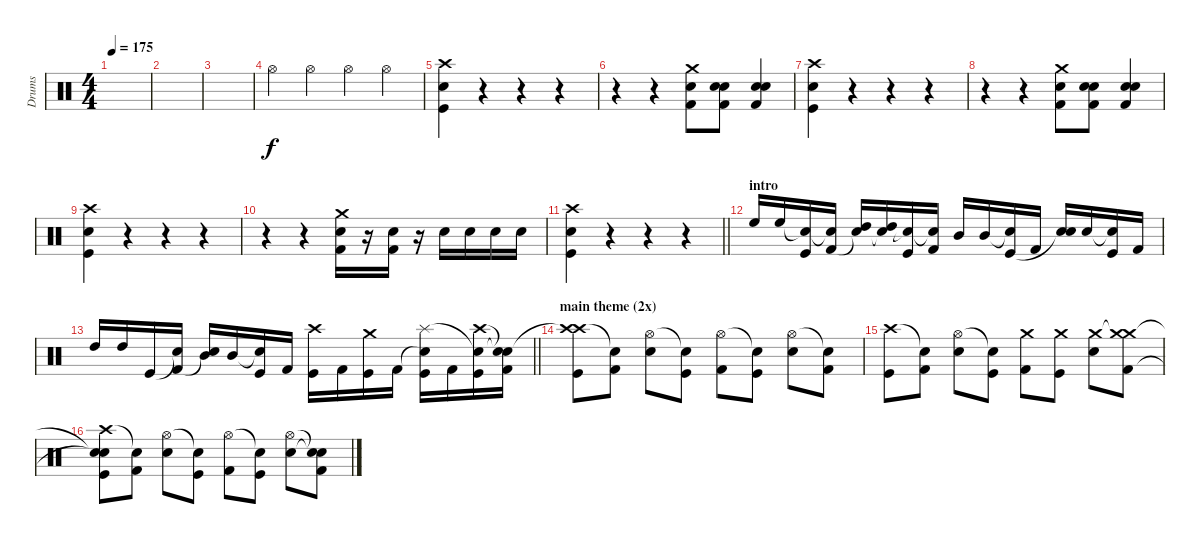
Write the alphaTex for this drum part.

\track ("Drums" "Drums") {instrument percussion}
\staff {score}
\articulation defaults
\ts (4 4)
\tempo 175
\clef neutral
\ks c
|
|
|
"Hi-Hat (open)".4 "Hi-Hat (open)".4 "Hi-Hat (open)".4 "Hi-Hat (open)".4 |
("Kick (hit)" "Snare (hit) 2" "Crash high (hit)").4 r.4 r.4 r.4 |
r.4 r.4 ("Kick (hit) 2" "Snare (hit) 2" "Crash medium (hit)").8 ("Snare (hit) 2" "Snare (hit) 2" "Kick (hit) 2").8 ("Snare (hit) 2" "Snare (hit) 2" "Kick (hit) 2").4 |
("Kick (hit)" "Snare (hit) 2" "Crash high (hit)").4 r.4 r.4 r.4 |
r.4 r.4 ("Kick (hit) 2" "Snare (hit) 2" "Crash medium (hit)").8 ("Snare (hit) 2" "Snare (hit) 2" "Kick (hit) 2").8 ("Snare (hit) 2" "Snare (hit) 2" "Kick (hit) 2").4 |
("Kick (hit)" "Snare (hit) 2" "Crash high (hit)").4 r.4 r.4 r.4 |
r.4 r.4 ("Kick (hit) 2" "Snare (hit) 2" "Crash medium (hit)").16 r.16 ("Snare (hit) 2" "Kick (hit) 2").16 r.16 "Snare (hit) 2".16 "Snare (hit) 2".16 "Snare (hit) 2".16 "Snare (hit) 2".16 |
\barLineRight lightlight
("Kick (hit)" "Snare (hit) 2" "Crash high (hit)").4 r.4 r.4 r.4 |
\section ("" "intro")
"High Floor Tom (hit)".16 "High Floor Tom (hit)".16 ("Snare (hit)"{t} "Kick (hit)").16 ("Snare (hit)"{t} "Kick (hit) 2").16 ("High Tom (hit)" "Snare (hit)"{t}).16 ("High Tom (hit)" "Snare (hit)"{t}).16 ("Snare (hit)"{t} "Kick (hit)").16 ("Snare (hit)"{t} "Kick (hit) 2").16 "Mid Tom (hit)".16 "Mid Tom (hit)".16 ("Snare (hit)"{t} "Kick (hit)").16 "Kick (hit) 2".16 ("Snare (hit) 2" "Snare (hit)"{t}).16 "Snare (hit) 2".16 ("Snare (hit)"{t} "Kick (hit)").16 "Kick (hit) 2".16 |
\barLineRight lightlight "High Tom (hit)".16 "High Tom (hit)".16 "Kick (hit)".16
("Snare (hit)"{t} "Kick (hit) 2").16 ("Mid Tom (hit)" "Snare (hit)"{t}).16 "Mid Tom (hit)".16 ("Snare (hit)"{t} "Kick (hit)").16 "Kick (hit) 2".16 ("Crash high (hit)" "Kick (hit)").16 "Kick (hit) 2".16 ("Crash medium (hit)" "Kick (hit)").16 "Kick (hit) 2".16 ("Snare (hit)"{t} "Splash (hit)" "Kick (hit)").16 "Kick (hit) 2".16 ("Crash high (hit)" "Snare (hit)"{t} "Kick (hit)").16 ("Snare (hit)"{t} "Snare (hit)"{t} "Kick (hit) 2").16 |
\section ("" "main theme (2x)")
("Crash high (hit)"{t} "Crash high (hit)" "Kick (hit)").8 ("Snare (hit)"{t} "Kick (hit) 2").8 ("Hi-Hat (open)" "Snare (hit) 2").8 ("Snare (hit)"{t} "Kick (hit)").8 ("Hi-Hat (open)" "Kick (hit) 2").8 ("Snare (hit)"{t} "Kick (hit)").8 ("Hi-Hat (open)" "Snare (hit) 2").8 ("Snare (hit)"{t} "Kick (hit) 2").8 |
("Crash high (hit)" "Kick (hit)").8 ("Snare (hit)"{t} "Kick (hit) 2").8 ("Hi-Hat (open)" "Snare (hit) 2").8 ("Snare (hit)"{t} "Kick (hit)").8 ("Crash medium (hit)" "Kick (hit) 2").8 ("Crash medium (hit)" "Kick (hit)").8 ("Crash medium (hit)" "Snare (hit) 2").8 ("Crash medium (hit)"{t} "Crash medium (hit)" "Kick (hit) 2").8 |
("Crash high (hit)" "Snare (hit)"{t} "Snare (hit)"{t} "Kick (hit)").8 ("Snare (hit)"{t} "Kick (hit) 2").8 ("Hi-Hat (open)" "Snare (hit) 2").8 ("Snare (hit)"{t} "Kick (hit)").8 ("Hi-Hat (open)" "Kick (hit) 2").8 ("Snare (hit)"{t} "Kick (hit)").8 ("Hi-Hat (open)" "Snare (hit) 2").8 ("Snare (hit)"{t} "Snare (hit)"{t} "Kick (hit) 2").8
